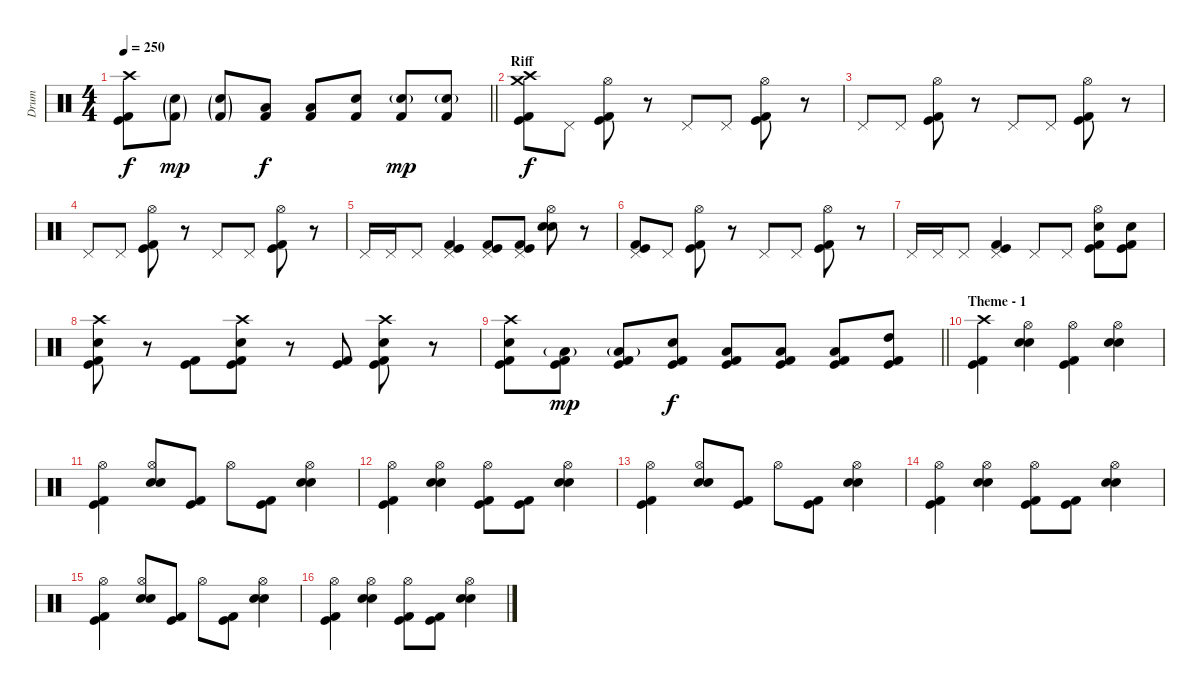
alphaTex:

\track ("Drum" "Drum") {instrument percussion}
\staff {score}
\articulation defaults
\ts (4 4)
\tempo 250
\clef neutral
\barLineRight lightlight
\ks c
("Crash high (hit)" "Kick (hit) 2" "Kick (hit)").8{dy f} ("Electric Snare (hit)"{g} "Kick (hit) 2"{g}).8{dy mp} ("Electric Snare (hit)"{g} "Kick (hit) 2"{g}).8 ("Low Floor Tom (hit)" "Kick (hit) 2").8{dy f} ("Low Floor Tom (hit)" "Kick (hit) 2").8 ("Electric Snare (hit)" "Kick (hit) 2").8 ("Electric Snare (hit)"{g} "Kick (hit) 2").8{dy mp} ("Electric Snare (hit)"{g} "Kick (hit) 2").8 |
\section ("" "Riff")
("Crash high (hit)" "Crash medium (hit)" "Kick (hit) 2" "Kick (hit)").8{dy f} "Pedal Hi-Hat (hit)".8 ("Hi-Hat (open)" "Kick (hit) 2" "Kick (hit)").8 r.8 "Pedal Hi-Hat (hit)".8 "Pedal Hi-Hat (hit)".8 ("Hi-Hat (open)" "Kick (hit) 2" "Kick (hit)").8 r.8 |
"Pedal Hi-Hat (hit)".8 "Pedal Hi-Hat (hit)".8 ("Hi-Hat (open)" "Kick (hit) 2" "Kick (hit)").8 r.8 "Pedal Hi-Hat (hit)".8 "Pedal Hi-Hat (hit)".8 ("Hi-Hat (open)" "Kick (hit) 2" "Kick (hit)").8 r.8 |
"Pedal Hi-Hat (hit)".8 "Pedal Hi-Hat (hit)".8 ("Hi-Hat (open)" "Kick (hit) 2" "Kick (hit)").8 r.8 "Pedal Hi-Hat (hit)".8 "Pedal Hi-Hat (hit)".8 ("Hi-Hat (open)" "Kick (hit) 2" "Kick (hit)").8 r.8 |
"Pedal Hi-Hat (hit)".16 "Pedal Hi-Hat (hit)".16 "Pedal Hi-Hat (hit)".8 ("Pedal Hi-Hat (hit)" "Kick (hit) 2" "Kick (hit)").4 ("Pedal Hi-Hat (hit)" "Kick (hit) 2" "Kick (hit)").8 ("Pedal Hi-Hat (hit)" "Kick (hit) 2" "Kick (hit)").8 ("Hi-Hat (open)" "Electric Snare (hit)" "Snare (hit) 2").8 r.8 |
("Pedal Hi-Hat (hit)" "Kick (hit) 2" "Kick (hit)").8 "Pedal Hi-Hat (hit)".8 ("Hi-Hat (open)" "Kick (hit) 2" "Kick (hit)").8 r.8 "Pedal Hi-Hat (hit)".8 "Pedal Hi-Hat (hit)".8 ("Hi-Hat (open)" "Kick (hit) 2" "Kick (hit)").8 r.8 |
"Pedal Hi-Hat (hit)".16 "Pedal Hi-Hat (hit)".16 "Pedal Hi-Hat (hit)".8 ("Pedal Hi-Hat (hit)" "Kick (hit) 2" "Kick (hit)").4 "Pedal Hi-Hat (hit)".8 "Pedal Hi-Hat (hit)".8 ("Hi-Hat (open)" "Electric Snare (hit)" "Kick (hit) 2" "Kick (hit)").8 ("Electric Snare (hit)" "Kick (hit) 2" "Kick (hit)").8 |
("Crash high (hit)" "Electric Snare (hit)" "Kick (hit) 2" "Kick (hit)").8 r.8 ("Kick (hit) 2" "Kick (hit)").8 ("Crash high (hit)" "Electric Snare (hit)" "Kick (hit) 2" "Kick (hit)").8 r.8 ("Kick (hit) 2" "Kick (hit)").8 ("Crash high (hit)" "Electric Snare (hit)" "Kick (hit) 2" "Kick (hit)").8 r.8 |
\barLineRight lightlight
("Crash high (hit)" "Electric Snare (hit)" "Kick (hit) 2" "Kick (hit)").8 ("Low Floor Tom (hit)"{g} "Kick (hit) 2" "Kick (hit)").8{dy mp} ("Low Floor Tom (hit)"{g} "Kick (hit) 2" "Kick (hit)").8 ("Electric Snare (hit)" "Kick (hit) 2" "Kick (hit)").8{dy f} ("Low Tom (hit)" "Kick (hit) 2" "Kick (hit)").8 ("Low Floor Tom (hit)" "Kick (hit) 2" "Kick (hit)").8 ("Low Floor Tom (hit)" "Kick (hit) 2" "Kick (hit)").8 ("High Tom (hit)" "Kick (hit) 2" "Kick (hit)").8 |
\section ("" "Theme - 1")
("Crash high (hit)" "Kick (hit) 2" "Kick (hit)").4 ("Hi-Hat (open)" "Electric Snare (hit)" "Snare (hit) 2").4 ("Hi-Hat (open)" "Kick (hit) 2" "Kick (hit)").4 ("Hi-Hat (open)" "Electric Snare (hit)" "Snare (hit) 2").4 |
("Hi-Hat (open)" "Kick (hit) 2" "Kick (hit)").4 ("Hi-Hat (open)" "Electric Snare (hit)" "Snare (hit) 2").8 ("Kick (hit) 2" "Kick (hit)").8 "Hi-Hat (open)".8 ("Kick (hit) 2" "Kick (hit)").8 ("Hi-Hat (open)" "Electric Snare (hit)" "Snare (hit) 2").4 |
("Hi-Hat (open)" "Kick (hit) 2" "Kick (hit)").4 ("Hi-Hat (open)" "Electric Snare (hit)" "Snare (hit) 2").4 ("Hi-Hat (open)" "Kick (hit) 2" "Kick (hit)").8 ("Kick (hit) 2" "Kick (hit)").8 ("Hi-Hat (open)" "Electric Snare (hit)" "Snare (hit) 2").4 |
("Hi-Hat (open)" "Kick (hit) 2" "Kick (hit)").4 ("Hi-Hat (open)" "Electric Snare (hit)" "Snare (hit) 2").8 ("Kick (hit) 2" "Kick (hit)").8 "Hi-Hat (open)".8 ("Kick (hit) 2" "Kick (hit)").8 ("Hi-Hat (open)" "Electric Snare (hit)" "Snare (hit) 2").4 |
("Hi-Hat (open)" "Kick (hit) 2" "Kick (hit)").4 ("Hi-Hat (open)" "Electric Snare (hit)" "Snare (hit) 2").4 ("Hi-Hat (open)" "Kick (hit) 2" "Kick (hit)").8 ("Kick (hit) 2" "Kick (hit)").8 ("Hi-Hat (open)" "Electric Snare (hit)" "Snare (hit) 2").4 |
("Hi-Hat (open)" "Kick (hit) 2" "Kick (hit)").4 ("Hi-Hat (open)" "Electric Snare (hit)" "Snare (hit) 2").8 ("Kick (hit) 2" "Kick (hit)").8 "Hi-Hat (open)".8 ("Kick (hit) 2" "Kick (hit)").8 ("Hi-Hat (open)" "Electric Snare (hit)" "Snare (hit) 2").4 |
("Hi-Hat (open)" "Kick (hit) 2" "Kick (hit)").4 ("Hi-Hat (open)" "Electric Snare (hit)" "Snare (hit) 2").4 ("Hi-Hat (open)" "Kick (hit) 2" "Kick (hit)").8 ("Kick (hit) 2" "Kick (hit)").8 ("Hi-Hat (open)" "Electric Snare (hit)" "Snare (hit) 2").4
